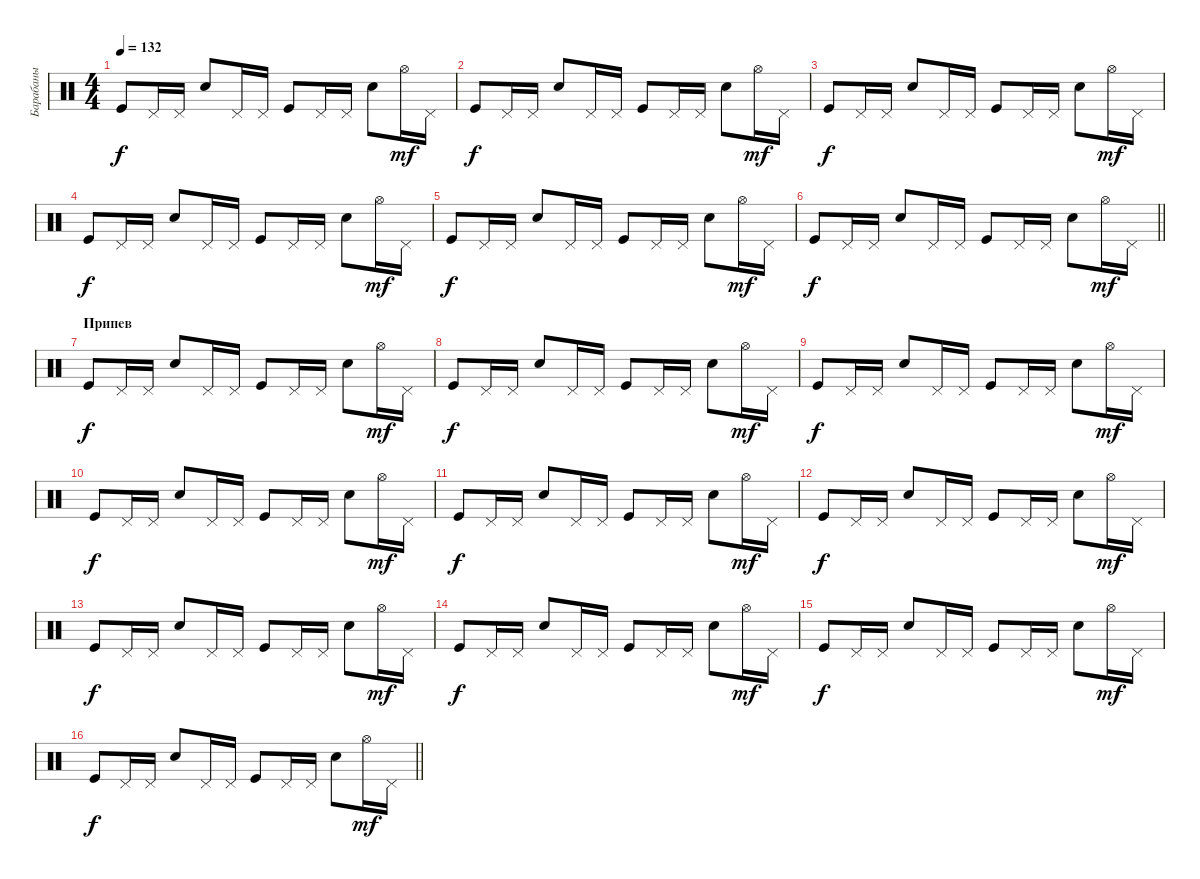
\track ("Барабаны" "Барабаны") {instrument percussion}
\staff {score}
\articulation defaults
\ts (4 4)
\tempo 132
\clef neutral
\ks c "Kick (hit)".8{dy f} "Pedal Hi-Hat (hit)".16 "Pedal Hi-Hat (hit)".16 "Snare (hit) 2".8 "Pedal Hi-Hat (hit)".16 "Pedal Hi-Hat (hit)".16 "Kick (hit)".8 "Pedal Hi-Hat (hit)".16 "Pedal Hi-Hat (hit)".16 "Snare (hit) 2".8 "Hi-Hat (open)".16{dy mf} "Pedal Hi-Hat (hit)".16
|
"Kick (hit)".8{dy f} "Pedal Hi-Hat (hit)".16 "Pedal Hi-Hat (hit)".16 "Snare (hit) 2".8 "Pedal Hi-Hat (hit)".16 "Pedal Hi-Hat (hit)".16 "Kick (hit)".8 "Pedal Hi-Hat (hit)".16 "Pedal Hi-Hat (hit)".16 "Snare (hit) 2".8 "Hi-Hat (open)".16{dy mf} "Pedal Hi-Hat (hit)".16 |
"Kick (hit)".8{dy f} "Pedal Hi-Hat (hit)".16 "Pedal Hi-Hat (hit)".16 "Snare (hit) 2".8 "Pedal Hi-Hat (hit)".16 "Pedal Hi-Hat (hit)".16 "Kick (hit)".8 "Pedal Hi-Hat (hit)".16 "Pedal Hi-Hat (hit)".16 "Snare (hit) 2".8 "Hi-Hat (open)".16{dy mf} "Pedal Hi-Hat (hit)".16 |
"Kick (hit)".8{dy f} "Pedal Hi-Hat (hit)".16 "Pedal Hi-Hat (hit)".16 "Snare (hit) 2".8 "Pedal Hi-Hat (hit)".16 "Pedal Hi-Hat (hit)".16 "Kick (hit)".8 "Pedal Hi-Hat (hit)".16 "Pedal Hi-Hat (hit)".16 "Snare (hit) 2".8 "Hi-Hat (open)".16{dy mf} "Pedal Hi-Hat (hit)".16 |
"Kick (hit)".8{dy f} "Pedal Hi-Hat (hit)".16 "Pedal Hi-Hat (hit)".16 "Snare (hit) 2".8 "Pedal Hi-Hat (hit)".16 "Pedal Hi-Hat (hit)".16 "Kick (hit)".8 "Pedal Hi-Hat (hit)".16 "Pedal Hi-Hat (hit)".16 "Snare (hit) 2".8 "Hi-Hat (open)".16{dy mf} "Pedal Hi-Hat (hit)".16 |
\barLineRight lightlight "Kick (hit)".8{dy f} "Pedal Hi-Hat (hit)".16 "Pedal Hi-Hat (hit)".16 "Snare (hit) 2".8 "Pedal Hi-Hat (hit)".16 "Pedal Hi-Hat (hit)".16 "Kick (hit)".8 "Pedal Hi-Hat (hit)".16 "Pedal Hi-Hat (hit)".16 "Snare (hit) 2".8 "Hi-Hat (open)".16{dy mf} "Pedal Hi-Hat (hit)".16
|
\section ("" "Припев")
"Kick (hit)".8{dy f} "Pedal Hi-Hat (hit)".16 "Pedal Hi-Hat (hit)".16 "Snare (hit) 2".8 "Pedal Hi-Hat (hit)".16 "Pedal Hi-Hat (hit)".16 "Kick (hit)".8 "Pedal Hi-Hat (hit)".16 "Pedal Hi-Hat (hit)".16 "Snare (hit) 2".8 "Hi-Hat (open)".16{dy mf} "Pedal Hi-Hat (hit)".16 |
"Kick (hit)".8{dy f} "Pedal Hi-Hat (hit)".16 "Pedal Hi-Hat (hit)".16 "Snare (hit) 2".8 "Pedal Hi-Hat (hit)".16 "Pedal Hi-Hat (hit)".16 "Kick (hit)".8 "Pedal Hi-Hat (hit)".16 "Pedal Hi-Hat (hit)".16 "Snare (hit) 2".8 "Hi-Hat (open)".16{dy mf} "Pedal Hi-Hat (hit)".16 |
"Kick (hit)".8{dy f} "Pedal Hi-Hat (hit)".16 "Pedal Hi-Hat (hit)".16 "Snare (hit) 2".8 "Pedal Hi-Hat (hit)".16 "Pedal Hi-Hat (hit)".16 "Kick (hit)".8 "Pedal Hi-Hat (hit)".16 "Pedal Hi-Hat (hit)".16 "Snare (hit) 2".8 "Hi-Hat (open)".16{dy mf} "Pedal Hi-Hat (hit)".16 |
"Kick (hit)".8{dy f} "Pedal Hi-Hat (hit)".16 "Pedal Hi-Hat (hit)".16 "Snare (hit) 2".8 "Pedal Hi-Hat (hit)".16 "Pedal Hi-Hat (hit)".16 "Kick (hit)".8 "Pedal Hi-Hat (hit)".16 "Pedal Hi-Hat (hit)".16 "Snare (hit) 2".8 "Hi-Hat (open)".16{dy mf} "Pedal Hi-Hat (hit)".16 |
"Kick (hit)".8{dy f} "Pedal Hi-Hat (hit)".16 "Pedal Hi-Hat (hit)".16 "Snare (hit) 2".8 "Pedal Hi-Hat (hit)".16 "Pedal Hi-Hat (hit)".16 "Kick (hit)".8 "Pedal Hi-Hat (hit)".16 "Pedal Hi-Hat (hit)".16 "Snare (hit) 2".8 "Hi-Hat (open)".16{dy mf} "Pedal Hi-Hat (hit)".16 |
"Kick (hit)".8{dy f} "Pedal Hi-Hat (hit)".16 "Pedal Hi-Hat (hit)".16 "Snare (hit) 2".8 "Pedal Hi-Hat (hit)".16 "Pedal Hi-Hat (hit)".16 "Kick (hit)".8 "Pedal Hi-Hat (hit)".16 "Pedal Hi-Hat (hit)".16 "Snare (hit) 2".8 "Hi-Hat (open)".16{dy mf} "Pedal Hi-Hat (hit)".16 |
"Kick (hit)".8{dy f} "Pedal Hi-Hat (hit)".16 "Pedal Hi-Hat (hit)".16 "Snare (hit) 2".8 "Pedal Hi-Hat (hit)".16 "Pedal Hi-Hat (hit)".16 "Kick (hit)".8 "Pedal Hi-Hat (hit)".16 "Pedal Hi-Hat (hit)".16 "Snare (hit) 2".8 "Hi-Hat (open)".16{dy mf} "Pedal Hi-Hat (hit)".16 |
"Kick (hit)".8{dy f} "Pedal Hi-Hat (hit)".16 "Pedal Hi-Hat (hit)".16 "Snare (hit) 2".8 "Pedal Hi-Hat (hit)".16 "Pedal Hi-Hat (hit)".16 "Kick (hit)".8 "Pedal Hi-Hat (hit)".16 "Pedal Hi-Hat (hit)".16 "Snare (hit) 2".8 "Hi-Hat (open)".16{dy mf} "Pedal Hi-Hat (hit)".16 |
"Kick (hit)".8{dy f} "Pedal Hi-Hat (hit)".16 "Pedal Hi-Hat (hit)".16 "Snare (hit) 2".8 "Pedal Hi-Hat (hit)".16 "Pedal Hi-Hat (hit)".16 "Kick (hit)".8 "Pedal Hi-Hat (hit)".16 "Pedal Hi-Hat (hit)".16 "Snare (hit) 2".8 "Hi-Hat (open)".16{dy mf} "Pedal Hi-Hat (hit)".16 |
\barLineRight lightlight "Kick (hit)".8{dy f} "Pedal Hi-Hat (hit)".16 "Pedal Hi-Hat (hit)".16 "Snare (hit) 2".8 "Pedal Hi-Hat (hit)".16 "Pedal Hi-Hat (hit)".16 "Kick (hit)".8 "Pedal Hi-Hat (hit)".16 "Pedal Hi-Hat (hit)".16 "Snare (hit) 2".8 "Hi-Hat (open)".16{dy mf} "Pedal Hi-Hat (hit)".16
